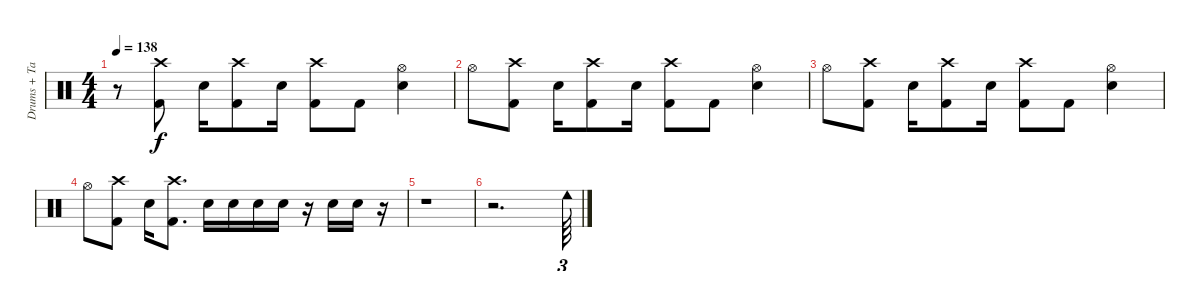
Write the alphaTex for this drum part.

\track ("Drums + Tambourine" "Drums + Ta") {instrument percussion}
\staff {score}
\articulation defaults
\ts (4 4)
\tempo 138
\clef neutral
\ks c
r.8{dy f} ("Crash high (hit)" "Kick (hit) 2").8 "Electric Snare (hit)".16 ("Crash high (hit)" "Kick (hit) 2").8 "Electric Snare (hit)".16 ("Crash high (hit)" "Kick (hit) 2").8 "Kick (hit) 2".8 ("Hi-Hat (open)" "Electric Snare (hit)").4 |
"Hi-Hat (open)".8 ("Crash high (hit)" "Kick (hit) 2").8 "Electric Snare (hit)".16 ("Crash high (hit)" "Kick (hit) 2").8 "Electric Snare (hit)".16 ("Crash high (hit)" "Kick (hit) 2").8 "Kick (hit) 2".8 ("Hi-Hat (open)" "Electric Snare (hit)").4 |
"Hi-Hat (open)".8 ("Crash high (hit)" "Kick (hit) 2").8 "Electric Snare (hit)".16 ("Crash high (hit)" "Kick (hit) 2").8 "Electric Snare (hit)".16 ("Crash high (hit)" "Kick (hit) 2").8 "Kick (hit) 2".8 ("Hi-Hat (open)" "Electric Snare (hit)").4 |
"Hi-Hat (open)".8 ("Crash high (hit)" "Kick (hit) 2").8 "Electric Snare (hit)".16 ("Crash high (hit)" "Kick (hit) 2").8{d} "Electric Snare (hit)".16 "Electric Snare (hit)".16 "Electric Snare (hit)".16 "Electric Snare (hit)".16 r.16 "Electric Snare (hit)".16 "Electric Snare (hit)".16 r.16 |
r.1 |
r.2{d} "Cowbell low (hit)".64{tu (3 2)}
